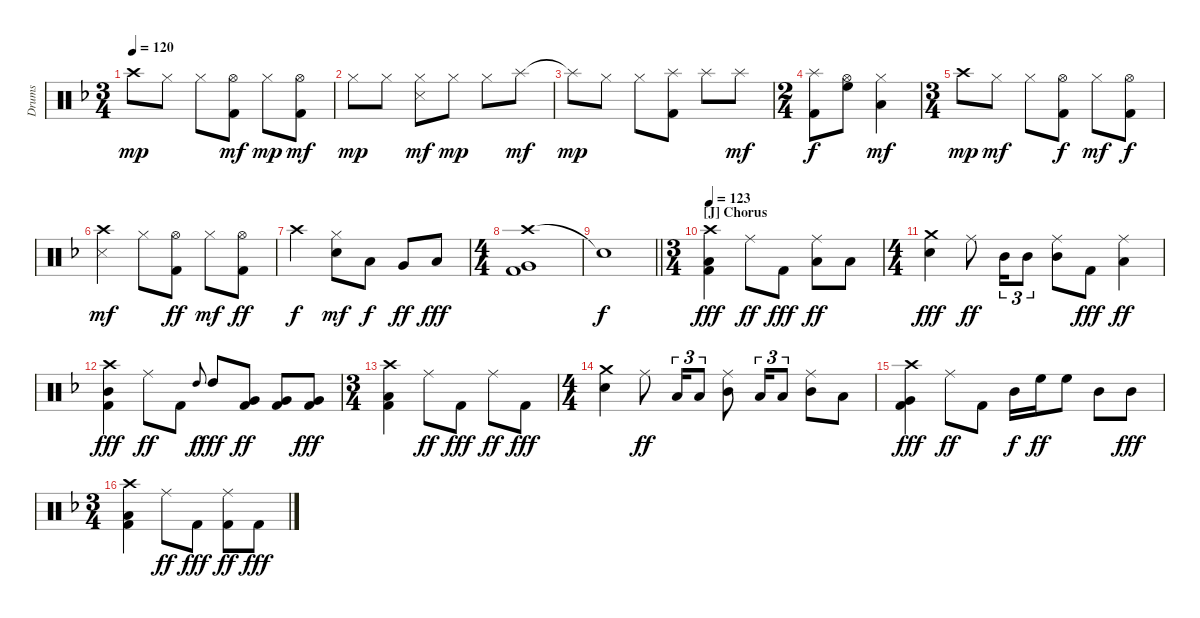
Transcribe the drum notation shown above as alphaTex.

\track ("Drums" "Drums") {instrument percussion}
\staff {score}
\articulation defaults
\ts (3 4)
\tempo 120
\clef neutral
\ks dminor "Crash high (hit)".8{dy mp} "Hi-Hat (closed)".8 "Hi-Hat (closed)".8
("Hi-Hat (open)" "Kick (hit) 2").8{dy mf} "Hi-Hat (closed)".8{dy mp} ("Hi-Hat (open)" "Kick (hit) 2").8{dy mf} |
"Hi-Hat (closed)".8{dy mp} "Hi-Hat (closed)".8 ("Hi-Hat (closed)" "Snare (side stick) 3").8{dy mf} "Hi-Hat (closed)".8{dy mp} "Hi-Hat (closed)".8 "Splash (hit)".8{dy mf} |
"Splash (hit)"{t}.8{dy mp} "Hi-Hat (closed)".8 "Hi-Hat (closed)".8 ("Splash (hit)" "Kick (hit) 2").8 "Splash (hit)".8 "Splash (hit)".8{dy mf} |
\ts (2 4)
("Splash (hit)" "Kick (hit) 2").8{dy f} ("Hi-Hat (open)" "High Floor Tom (hit)").8 ("Hi-Hat (closed)" "Low Tom (hit)").4{dy mf} |
\ts (3 4)
"Crash high (hit)".8{dy mp} "Hi-Hat (closed)".8{dy mf} "Hi-Hat (closed)".8 ("Hi-Hat (open)" "Kick (hit) 2").8{dy f} "Hi-Hat (closed)".8{dy mf} ("Hi-Hat (open)" "Kick (hit) 2").8{dy f} |
("Crash high (hit)" "Snare (side stick) 3").4{dy mf} "Hi-Hat (closed)".8 ("Hi-Hat (open)" "Kick (hit) 2").8{dy ff} "Hi-Hat (closed)".8{dy mf} ("Hi-Hat (open)" "Kick (hit) 2").8{dy ff} |
"Crash high (hit)".4{dy f} ("Hi-Hat (closed)" "Snare (hit) 2").8{dy mf} "Low Tom (hit)".8{dy f} "Very Low Tom (hit)".8{dy ff} "Low Floor Tom (hit)".8{dy fff} |
\ts (4 4)
("Crash high (hit)" "Very Low Tom (hit)" "Kick (hit) 2").1 |
\barLineRight lightlight "Snare (hit)"{t}.1{dy f}
|
\ts (3 4)
\section ("" "[J] Chorus")
\tempo 123
("Crash high (hit)" "Low Tom (hit)" "Kick (hit) 2").4{dy fff} "Ride (middle)".8{dy ff} "Kick (hit) 2".8{dy fff} ("Ride (middle)" "Low Tom (hit)").8{dy ff} "Low Tom (hit)".8 |
\ts (4 4)
("Crash medium (hit)" "Snare (hit) 2").4{dy fff} "Ride (middle)".8{dy ff} "Mid Tom (hit)".16{tu (3 2)} "Mid Tom (hit)".8{tu (3 2)} ("Ride (middle)" "Mid Tom (hit)").8 "Kick (hit) 2".8{dy fff} ("Ride (middle)" "Low Tom (hit)").4{dy ff} |
("Crash high (hit)" "Mid Tom (hit)" "Kick (hit) 2").4{dy fff} "Ride (middle)".8{dy ff} "Kick (hit) 2".8 "High Tom (hit)".8{gr onbeat dy f} "High Tom (hit)".8{dy fff} ("Very Low Tom (hit)" "Kick (hit) 2").8{dy ff} ("Very Low Tom (hit)" "Kick (hit) 2").8 ("Very Low Tom (hit)" "Kick (hit) 2").8{dy fff} |
\ts (3 4)
("Crash high (hit)" "Low Tom (hit)" "Kick (hit) 2").4 "Ride (middle)".8{dy ff} "Kick (hit) 2".8{dy fff} "Ride (middle)".8{dy ff} "Kick (hit) 2".8{dy fff} |
\ts (4 4)
("Crash medium (hit)" "Snare (hit) 2").4 "Ride (middle)".8{dy ff} "Low Tom (hit)".16{tu (3 2)} "Low Tom (hit)".8{tu (3 2)} ("Ride (middle)" "Mid Tom (hit)").8 "Low Tom (hit)".16{tu (3 2)} "Low Tom (hit)".8{tu (3 2)} ("Ride (middle)" "Mid Tom (hit)").8 "Low Tom (hit)".8 |
("Crash high (hit)" "Very Low Tom (hit)" "Kick (hit) 2").4{dy fff} "Ride (middle)".8{dy ff} "Kick (hit) 2".8 "Mid Tom (hit)".16{dy f} "High Floor Tom (hit)".16{dy ff} "High Floor Tom (hit)".8 "Mid Tom (hit)".8 "Mid Tom (hit)".8{dy fff} |
\ts (3 4)
("Crash high (hit)" "Low Tom (hit)" "Kick (hit) 2").4 "Ride (middle)".8{dy ff} "Kick (hit) 2".8{dy fff} ("Ride (middle)" "Kick (hit) 2").8{dy ff} "Kick (hit) 2".8{dy fff}
